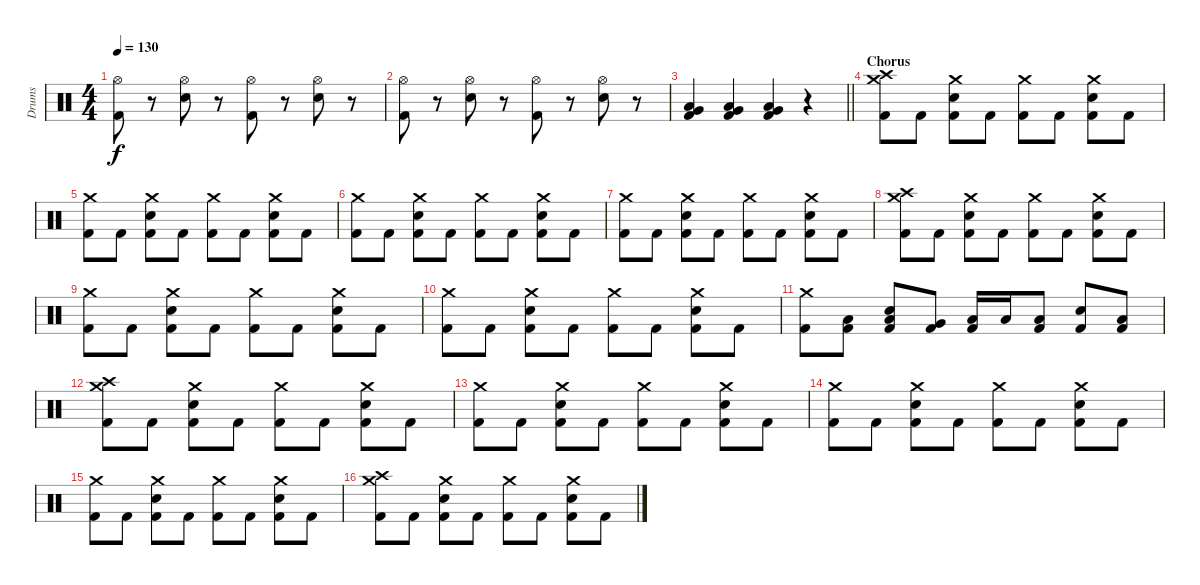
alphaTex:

\track ("Drums" "Drums") {instrument percussion}
\staff {score}
\articulation defaults
\ts (4 4)
\tempo 130
\clef neutral
\ks c
("Hi-Hat (open)" "Kick (hit) 2").8{dy f} r.8 ("Hi-Hat (open)" "Snare (hit) 2").8 r.8 ("Hi-Hat (open)" "Kick (hit) 2").8 r.8 ("Hi-Hat (open)" "Snare (hit) 2").8 r.8 |
("Hi-Hat (open)" "Kick (hit) 2").8 r.8 ("Hi-Hat (open)" "Snare (hit) 2").8 r.8 ("Hi-Hat (open)" "Kick (hit) 2").8 r.8 ("Hi-Hat (open)" "Snare (hit) 2").8 r.8 |
\barLineRight lightlight
("Very Low Tom (hit)" "Low Floor Tom (hit)" "Kick (hit) 2").4 ("Very Low Tom (hit)" "Low Floor Tom (hit)" "Kick (hit) 2").4 ("Very Low Tom (hit)" "Low Floor Tom (hit)" "Kick (hit) 2").4 r.4 |
\section ("" "Chorus")
("Crash medium (hit)" "Crash high (hit)" "Kick (hit) 2").8 "Kick (hit) 2".8 ("Crash medium (hit)" "Snare (hit) 2" "Kick (hit) 2").8 "Kick (hit) 2".8 ("Crash medium (hit)" "Kick (hit) 2").8 "Kick (hit) 2".8 ("Crash medium (hit)" "Snare (hit) 2" "Kick (hit) 2").8 "Kick (hit) 2".8 |
("Crash medium (hit)" "Kick (hit) 2").8 "Kick (hit) 2".8 ("Crash medium (hit)" "Snare (hit) 2" "Kick (hit) 2").8 "Kick (hit) 2".8 ("Crash medium (hit)" "Kick (hit) 2").8 "Kick (hit) 2".8 ("Crash medium (hit)" "Snare (hit) 2" "Kick (hit) 2").8 "Kick (hit) 2".8 |
("Crash medium (hit)" "Kick (hit) 2").8 "Kick (hit) 2".8 ("Crash medium (hit)" "Snare (hit) 2" "Kick (hit) 2").8 "Kick (hit) 2".8 ("Crash medium (hit)" "Kick (hit) 2").8 "Kick (hit) 2".8 ("Crash medium (hit)" "Snare (hit) 2" "Kick (hit) 2").8 "Kick (hit) 2".8 |
("Crash medium (hit)" "Kick (hit) 2").8 "Kick (hit) 2".8 ("Crash medium (hit)" "Snare (hit) 2" "Kick (hit) 2").8 "Kick (hit) 2".8 ("Crash medium (hit)" "Kick (hit) 2").8 "Kick (hit) 2".8 ("Crash medium (hit)" "Snare (hit) 2" "Kick (hit) 2").8 "Kick (hit) 2".8 |
("Crash medium (hit)" "Crash high (hit)" "Kick (hit) 2").8 "Kick (hit) 2".8 ("Crash medium (hit)" "Snare (hit) 2" "Kick (hit) 2").8 "Kick (hit) 2".8 ("Crash medium (hit)" "Kick (hit) 2").8 "Kick (hit) 2".8 ("Crash medium (hit)" "Snare (hit) 2" "Kick (hit) 2").8 "Kick (hit) 2".8 |
("Crash medium (hit)" "Kick (hit) 2").8 "Kick (hit) 2".8 ("Crash medium (hit)" "Snare (hit) 2" "Kick (hit) 2").8 "Kick (hit) 2".8 ("Crash medium (hit)" "Kick (hit) 2").8 "Kick (hit) 2".8 ("Crash medium (hit)" "Snare (hit) 2" "Kick (hit) 2").8 "Kick (hit) 2".8 |
("Crash medium (hit)" "Kick (hit) 2").8 "Kick (hit) 2".8 ("Crash medium (hit)" "Snare (hit) 2" "Kick (hit) 2").8 "Kick (hit) 2".8 ("Crash medium (hit)" "Kick (hit) 2").8 "Kick (hit) 2".8 ("Crash medium (hit)" "Snare (hit) 2" "Kick (hit) 2").8 "Kick (hit) 2".8 |
("Crash medium (hit)" "Kick (hit) 2").8 ("Low Floor Tom (hit)" "Kick (hit) 2").8 ("Low Floor Tom (hit)" "Snare (hit) 2" "Kick (hit) 2").8 ("Very Low Tom (hit)" "Kick (hit) 2").8 ("Low Floor Tom (hit)" "Kick (hit) 2").16 "Low Floor Tom (hit)".16 ("Low Floor Tom (hit)" "Kick (hit) 2").8 ("Snare (hit) 2" "Kick (hit) 2").8 ("Low Tom (hit)" "Kick (hit) 2").8 |
("Crash medium (hit)" "Crash high (hit)" "Kick (hit) 2").8 "Kick (hit) 2".8 ("Crash medium (hit)" "Snare (hit) 2" "Kick (hit) 2").8 "Kick (hit) 2".8 ("Crash medium (hit)" "Kick (hit) 2").8 "Kick (hit) 2".8 ("Crash medium (hit)" "Snare (hit) 2" "Kick (hit) 2").8 "Kick (hit) 2".8 |
("Crash medium (hit)" "Kick (hit) 2").8 "Kick (hit) 2".8 ("Crash medium (hit)" "Snare (hit) 2" "Kick (hit) 2").8 "Kick (hit) 2".8 ("Crash medium (hit)" "Kick (hit) 2").8 "Kick (hit) 2".8 ("Crash medium (hit)" "Snare (hit) 2" "Kick (hit) 2").8 "Kick (hit) 2".8 |
("Crash medium (hit)" "Kick (hit) 2").8 "Kick (hit) 2".8 ("Crash medium (hit)" "Snare (hit) 2" "Kick (hit) 2").8 "Kick (hit) 2".8 ("Crash medium (hit)" "Kick (hit) 2").8 "Kick (hit) 2".8 ("Crash medium (hit)" "Snare (hit) 2" "Kick (hit) 2").8 "Kick (hit) 2".8 |
("Crash medium (hit)" "Kick (hit) 2").8 "Kick (hit) 2".8 ("Crash medium (hit)" "Snare (hit) 2" "Kick (hit) 2").8 "Kick (hit) 2".8 ("Crash medium (hit)" "Kick (hit) 2").8 "Kick (hit) 2".8 ("Crash medium (hit)" "Snare (hit) 2" "Kick (hit) 2").8 "Kick (hit) 2".8 |
("Crash medium (hit)" "Crash high (hit)" "Kick (hit) 2").8 "Kick (hit) 2".8 ("Crash medium (hit)" "Snare (hit) 2" "Kick (hit) 2").8 "Kick (hit) 2".8 ("Crash medium (hit)" "Kick (hit) 2").8 "Kick (hit) 2".8 ("Crash medium (hit)" "Snare (hit) 2" "Kick (hit) 2").8 "Kick (hit) 2".8
